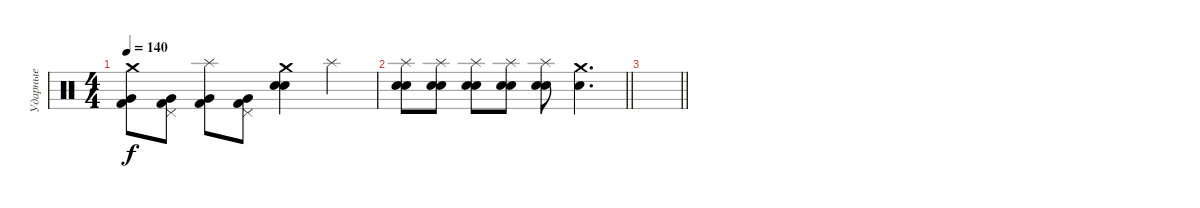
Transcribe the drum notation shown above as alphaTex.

\track ("Ударные" "Ударные") {instrument percussion}
\staff {score}
\articulation defaults
\ts (4 4)
\tempo 140
\clef neutral
\ks c
("Crash medium (hit)" "Very Low Tom (hit)" "Kick (hit) 2").8{dy f} ("Pedal Hi-Hat (hit)" "Very Low Tom (hit)" "Kick (hit) 2").8 ("Splash (hit)" "Very Low Tom (hit)" "Kick (hit) 2").8 ("Pedal Hi-Hat (hit)" "Very Low Tom (hit)" "Kick (hit) 2").8 ("Crash medium (hit)" "Electric Snare (hit)" "Snare (hit) 2").4 "Splash (hit)".4 |
\barLineRight lightlight
("Splash (hit)" "Electric Snare (hit)" "Snare (hit) 2").8 ("Splash (hit)" "Electric Snare (hit)" "Snare (hit) 2").8 ("Splash (hit)" "Electric Snare (hit)" "Snare (hit) 2").8 ("Splash (hit)" "Electric Snare (hit)" "Snare (hit) 2").8 ("Splash (hit)" "Electric Snare (hit)" "Snare (hit) 2").8 ("Crash medium (hit)" "Electric Snare (hit)").4{d} |
\barLineRight lightlight
